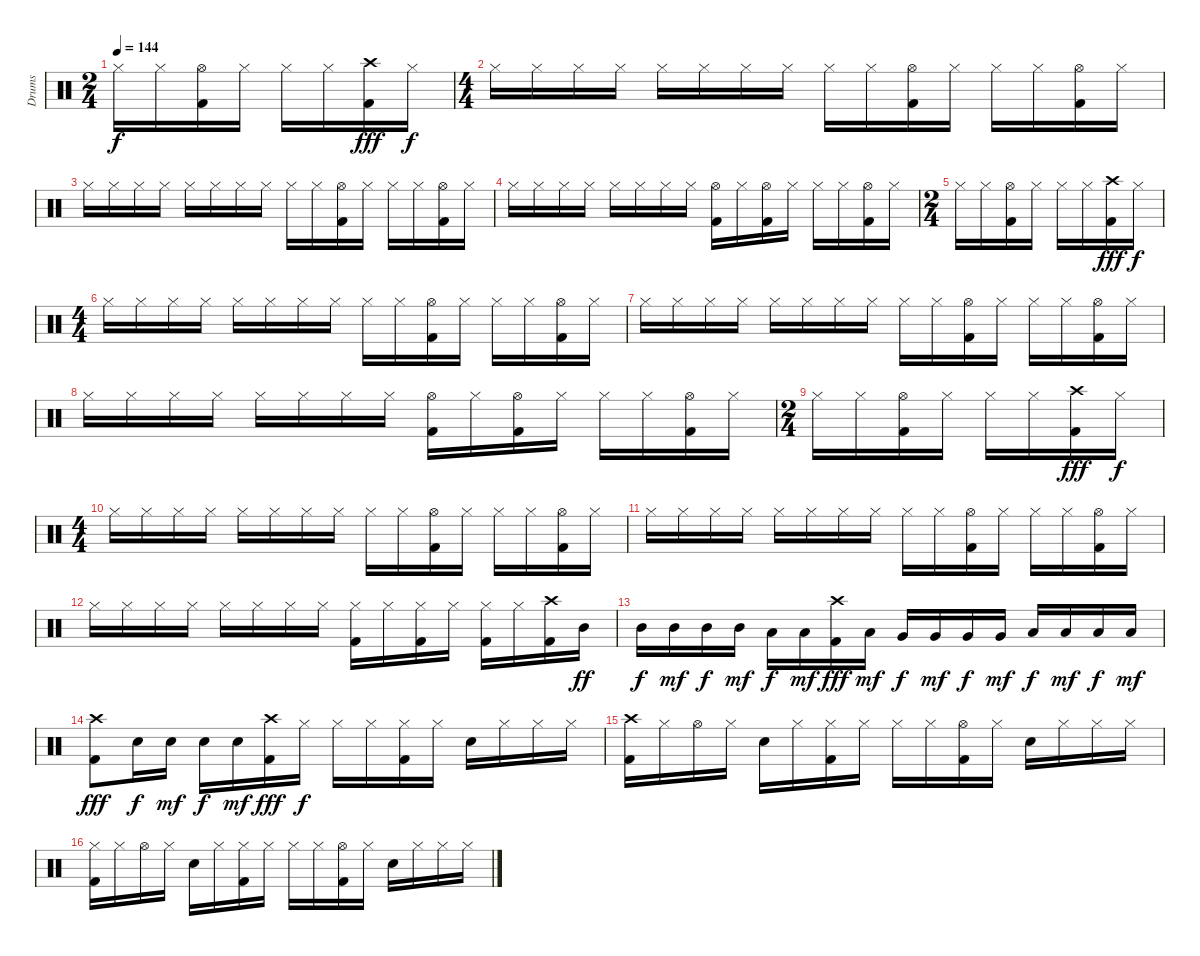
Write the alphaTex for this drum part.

\track ("Drums" "Drums") {instrument percussion}
\staff {score}
\articulation defaults
\ts (2 4)
\tempo 144
\clef neutral
\ks c "Hi-Hat (closed)".16{dy f} "Hi-Hat (closed)".16
("Hi-Hat (open)" "Kick (hit) 2").16 "Hi-Hat (closed)".16 "Hi-Hat (closed)".16 "Hi-Hat (closed)".16 ("Crash high (hit)" "Kick (hit) 2").16{dy fff} "Hi-Hat (closed)".16{dy f} |
\ts (4 4)
"Hi-Hat (closed)".16 "Hi-Hat (closed)".16 "Hi-Hat (closed)".16 "Hi-Hat (closed)".16 "Hi-Hat (closed)".16 "Hi-Hat (closed)".16 "Hi-Hat (closed)".16 "Hi-Hat (closed)".16 "Hi-Hat (closed)".16 "Hi-Hat (closed)".16 ("Hi-Hat (open)" "Kick (hit) 2").16 "Hi-Hat (closed)".16 "Hi-Hat (closed)".16 "Hi-Hat (closed)".16 ("Hi-Hat (open)" "Kick (hit) 2").16 "Hi-Hat (closed)".16 |
"Hi-Hat (closed)".16 "Hi-Hat (closed)".16 "Hi-Hat (closed)".16 "Hi-Hat (closed)".16 "Hi-Hat (closed)".16 "Hi-Hat (closed)".16 "Hi-Hat (closed)".16 "Hi-Hat (closed)".16 "Hi-Hat (closed)".16 "Hi-Hat (closed)".16 ("Hi-Hat (open)" "Kick (hit) 2").16 "Hi-Hat (closed)".16 "Hi-Hat (closed)".16 "Hi-Hat (closed)".16 ("Hi-Hat (open)" "Kick (hit) 2").16 "Hi-Hat (closed)".16 |
"Hi-Hat (closed)".16 "Hi-Hat (closed)".16 "Hi-Hat (closed)".16 "Hi-Hat (closed)".16 "Hi-Hat (closed)".16 "Hi-Hat (closed)".16 "Hi-Hat (closed)".16 "Hi-Hat (closed)".16 ("Hi-Hat (open)" "Kick (hit) 2").16 "Hi-Hat (closed)".16 ("Hi-Hat (open)" "Kick (hit) 2").16 "Hi-Hat (closed)".16 "Hi-Hat (closed)".16 "Hi-Hat (closed)".16 ("Hi-Hat (open)" "Kick (hit) 2").16 "Hi-Hat (closed)".16 |
\ts (2 4)
"Hi-Hat (closed)".16 "Hi-Hat (closed)".16 ("Hi-Hat (open)" "Kick (hit) 2").16 "Hi-Hat (closed)".16 "Hi-Hat (closed)".16 "Hi-Hat (closed)".16 ("Crash high (hit)" "Kick (hit) 2").16{dy fff} "Hi-Hat (closed)".16{dy f} |
\ts (4 4)
"Hi-Hat (closed)".16 "Hi-Hat (closed)".16 "Hi-Hat (closed)".16 "Hi-Hat (closed)".16 "Hi-Hat (closed)".16 "Hi-Hat (closed)".16 "Hi-Hat (closed)".16 "Hi-Hat (closed)".16 "Hi-Hat (closed)".16 "Hi-Hat (closed)".16 ("Hi-Hat (open)" "Kick (hit) 2").16 "Hi-Hat (closed)".16 "Hi-Hat (closed)".16 "Hi-Hat (closed)".16 ("Hi-Hat (open)" "Kick (hit) 2").16 "Hi-Hat (closed)".16 |
"Hi-Hat (closed)".16 "Hi-Hat (closed)".16 "Hi-Hat (closed)".16 "Hi-Hat (closed)".16 "Hi-Hat (closed)".16 "Hi-Hat (closed)".16 "Hi-Hat (closed)".16 "Hi-Hat (closed)".16 "Hi-Hat (closed)".16 "Hi-Hat (closed)".16 ("Hi-Hat (open)" "Kick (hit) 2").16 "Hi-Hat (closed)".16 "Hi-Hat (closed)".16 "Hi-Hat (closed)".16 ("Hi-Hat (open)" "Kick (hit) 2").16 "Hi-Hat (closed)".16 |
"Hi-Hat (closed)".16 "Hi-Hat (closed)".16 "Hi-Hat (closed)".16 "Hi-Hat (closed)".16 "Hi-Hat (closed)".16 "Hi-Hat (closed)".16 "Hi-Hat (closed)".16 "Hi-Hat (closed)".16 ("Hi-Hat (open)" "Kick (hit) 2").16 "Hi-Hat (closed)".16 ("Hi-Hat (open)" "Kick (hit) 2").16 "Hi-Hat (closed)".16 "Hi-Hat (closed)".16 "Hi-Hat (closed)".16 ("Hi-Hat (open)" "Kick (hit) 2").16 "Hi-Hat (closed)".16 |
\ts (2 4)
"Hi-Hat (closed)".16 "Hi-Hat (closed)".16 ("Hi-Hat (open)" "Kick (hit) 2").16 "Hi-Hat (closed)".16 "Hi-Hat (closed)".16 "Hi-Hat (closed)".16 ("Crash high (hit)" "Kick (hit) 2").16{dy fff} "Hi-Hat (closed)".16{dy f} |
\ts (4 4)
"Hi-Hat (closed)".16 "Hi-Hat (closed)".16 "Hi-Hat (closed)".16 "Hi-Hat (closed)".16 "Hi-Hat (closed)".16 "Hi-Hat (closed)".16 "Hi-Hat (closed)".16 "Hi-Hat (closed)".16 "Hi-Hat (closed)".16 "Hi-Hat (closed)".16 ("Hi-Hat (open)" "Kick (hit) 2").16 "Hi-Hat (closed)".16 "Hi-Hat (closed)".16 "Hi-Hat (closed)".16 ("Hi-Hat (open)" "Kick (hit) 2").16 "Hi-Hat (closed)".16 |
"Hi-Hat (closed)".16 "Hi-Hat (closed)".16 "Hi-Hat (closed)".16 "Hi-Hat (closed)".16 "Hi-Hat (closed)".16 "Hi-Hat (closed)".16 "Hi-Hat (closed)".16 "Hi-Hat (closed)".16 "Hi-Hat (closed)".16 "Hi-Hat (closed)".16 ("Hi-Hat (open)" "Kick (hit) 2").16 "Hi-Hat (closed)".16 "Hi-Hat (closed)".16 "Hi-Hat (closed)".16 ("Hi-Hat (open)" "Kick (hit) 2").16 "Hi-Hat (closed)".16 |
"Hi-Hat (closed)".16 "Hi-Hat (closed)".16 "Hi-Hat (closed)".16 "Hi-Hat (closed)".16 "Hi-Hat (closed)".16 "Hi-Hat (closed)".16 "Hi-Hat (closed)".16 "Hi-Hat (closed)".16 ("Hi-Hat (closed)" "Kick (hit) 2").16 "Hi-Hat (closed)".16 ("Hi-Hat (closed)" "Kick (hit) 2").16 "Hi-Hat (closed)".16 ("Hi-Hat (closed)" "Kick (hit) 2").16 "Hi-Hat (closed)".16 ("Crash high (hit)" "Kick (hit) 2").16 "Mid Tom (hit)".16{dy ff} |
"Mid Tom (hit)".16{dy f} "Mid Tom (hit)".16{dy mf} "Mid Tom (hit)".16{dy f} "Mid Tom (hit)".16{dy mf} "Low Tom (hit)".16{dy f} "Low Tom (hit)".16{dy mf} ("Crash high (hit)" "Kick (hit) 2").16{dy fff} "Low Tom (hit)".16{dy mf} "Very Low Tom (hit)".16{dy f} "Very Low Tom (hit)".16{dy mf} "Very Low Tom (hit)".16{dy f} "Very Low Tom (hit)".16{dy mf} "Low Floor Tom (hit)".16{dy f} "Low Floor Tom (hit)".16{dy mf} "Low Floor Tom (hit)".16{dy f} "Low Floor Tom (hit)".16{dy mf} |
("Crash high (hit)" "Kick (hit) 2").8{dy fff} "Snare (hit) 2".16{dy f} "Snare (hit) 2".16{dy mf} "Snare (hit) 2".16{dy f} "Snare (hit) 2".16{dy mf} ("Crash high (hit)" "Kick (hit) 2").16{dy fff} "Hi-Hat (closed)".16{dy f} "Hi-Hat (closed)".16 "Hi-Hat (closed)".16 ("Hi-Hat (closed)" "Kick (hit) 2").16 "Hi-Hat (closed)".16 "Snare (hit) 2".16 "Hi-Hat (closed)".16 "Hi-Hat (closed)".16 "Hi-Hat (closed)".16 |
("Crash high (hit)" "Kick (hit) 2").16 "Hi-Hat (closed)".16 "Hi-Hat (open)".16 "Hi-Hat (closed)".16 "Snare (hit) 2".16 "Hi-Hat (closed)".16 ("Hi-Hat (closed)" "Kick (hit) 2").16 "Hi-Hat (closed)".16 "Hi-Hat (closed)".16 "Hi-Hat (closed)".16 ("Hi-Hat (open)" "Kick (hit) 2").16 "Hi-Hat (closed)".16 "Snare (hit) 2".16 "Hi-Hat (closed)".16 "Hi-Hat (closed)".16 "Hi-Hat (closed)".16 |
("Hi-Hat (closed)" "Kick (hit) 2").16 "Hi-Hat (closed)".16 "Hi-Hat (open)".16 "Hi-Hat (closed)".16 "Snare (hit) 2".16 "Hi-Hat (closed)".16 ("Hi-Hat (closed)" "Kick (hit) 2").16 "Hi-Hat (closed)".16 "Hi-Hat (closed)".16 "Hi-Hat (closed)".16 ("Hi-Hat (open)" "Kick (hit) 2").16 "Hi-Hat (closed)".16 "Snare (hit) 2".16 "Hi-Hat (closed)".16 "Hi-Hat (closed)".16 "Hi-Hat (closed)".16
